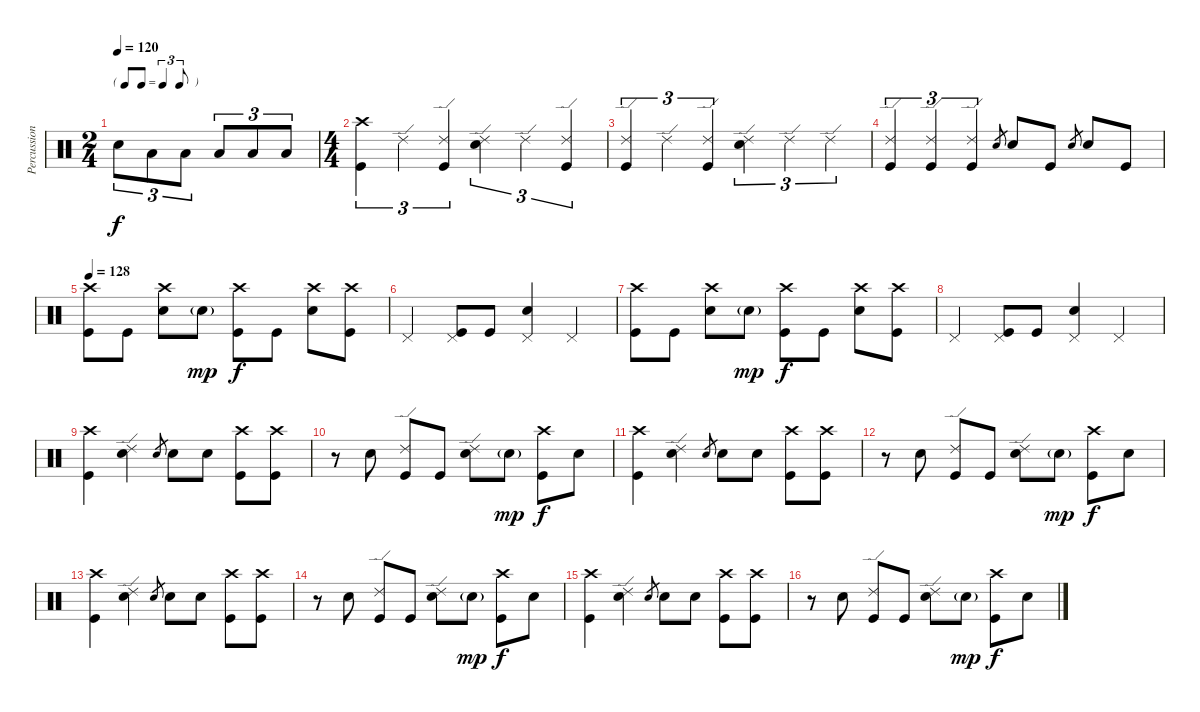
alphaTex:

\track ("Percussion" "Percussion") {instrument percussion}
\staff {score}
\articulation defaults
\ts (2 4)
\tf triplet8th
\tempo 120
\clef neutral
\ks c "Electric Snare (hit)".8{tu (3 2) dy f} "Low Tom (hit)".8{tu (3 2)} "Low Tom (hit)".8{tu (3 2)} "Low Floor Tom (hit)".8{tu (3 2)} "Low Floor Tom (hit)".8{tu (3 2)} "Low Floor Tom (hit)".8{tu (3 2)}
|
\ts (4 4)
("Crash high (hit)" "Kick (hit)").4{tu (3 2)} "Ride (edge) 2".4{tu (3 2)} ("Ride (edge) 2" "Kick (hit)").4{tu (3 2)} ("Ride (edge) 2" "Electric Snare (hit)").4{tu (3 2)} "Ride (edge) 2".4{tu (3 2)} ("Ride (edge) 2" "Kick (hit)").4{tu (3 2)} |
("Ride (edge) 2" "Kick (hit)").4{tu (3 2)} "Ride (edge) 2".4{tu (3 2)} ("Ride (edge) 2" "Kick (hit)").4{tu (3 2)} ("Ride (edge) 2" "Electric Snare (hit)").4{tu (3 2)} "Ride (edge) 2".4{tu (3 2)} "Ride (edge) 2".4{tu (3 2)} |
("Ride (edge) 2" "Kick (hit)").4{tu (3 2)} ("Ride (edge) 2" "Kick (hit)").4{tu (3 2)} ("Ride (edge) 2" "Kick (hit)").4{tu (3 2)} "Electric Snare (hit)".8{gr} "Electric Snare (hit)".8 "Kick (hit)".8 "Electric Snare (hit)".8{gr} "Electric Snare (hit)".8 "Kick (hit)".8 |
\tempo 128
("Crash high (hit)" "Kick (hit)").8 "Kick (hit)".8 ("Crash high (hit)" "Electric Snare (hit)").8 "Electric Snare (hit)"{g}.8{dy mp} ("Crash high (hit)" "Kick (hit)").8{dy f} "Kick (hit)".8 ("Crash high (hit)" "Electric Snare (hit)").8 ("Crash high (hit)" "Kick (hit)").8 |
"Pedal Hi-Hat (hit)".4 ("Pedal Hi-Hat (hit)" "Kick (hit)").8 "Kick (hit)".8 ("Pedal Hi-Hat (hit)" "Electric Snare (hit)").4 "Pedal Hi-Hat (hit)".4 |
("Crash high (hit)" "Kick (hit)").8 "Kick (hit)".8 ("Crash high (hit)" "Electric Snare (hit)").8 "Electric Snare (hit)"{g}.8{dy mp} ("Crash high (hit)" "Kick (hit)").8{dy f} "Kick (hit)".8 ("Crash high (hit)" "Electric Snare (hit)").8 ("Crash high (hit)" "Kick (hit)").8 |
"Pedal Hi-Hat (hit)".4 ("Pedal Hi-Hat (hit)" "Kick (hit)").8 "Kick (hit)".8 ("Pedal Hi-Hat (hit)" "Electric Snare (hit)").4 "Pedal Hi-Hat (hit)".4 |
("Crash high (hit)" "Kick (hit)").4 ("Ride (edge) 2" "Electric Snare (hit)").4 "Electric Snare (hit)".8{gr} "Electric Snare (hit)".8 "Electric Snare (hit)".8 ("Crash high (hit)" "Kick (hit)").8 ("Crash high (hit)" "Kick (hit)").8 |
r.8 "Electric Snare (hit)".8 ("Ride (edge) 2" "Kick (hit)").8 "Kick (hit)".8 ("Ride (edge) 2" "Electric Snare (hit)").8 "Electric Snare (hit)"{g}.8{dy mp} ("Crash high (hit)" "Kick (hit)").8{dy f} "Electric Snare (hit)".8 |
("Crash high (hit)" "Kick (hit)").4 ("Ride (edge) 2" "Electric Snare (hit)").4 "Electric Snare (hit)".8{gr} "Electric Snare (hit)".8 "Electric Snare (hit)".8 ("Crash high (hit)" "Kick (hit)").8 ("Crash high (hit)" "Kick (hit)").8 |
r.8 "Electric Snare (hit)".8 ("Ride (edge) 2" "Kick (hit)").8 "Kick (hit)".8 ("Ride (edge) 2" "Electric Snare (hit)").8 "Electric Snare (hit)"{g}.8{dy mp} ("Crash high (hit)" "Kick (hit)").8{dy f} "Electric Snare (hit)".8 |
("Crash high (hit)" "Kick (hit)").4 ("Ride (edge) 2" "Electric Snare (hit)").4 "Electric Snare (hit)".8{gr} "Electric Snare (hit)".8 "Electric Snare (hit)".8 ("Crash high (hit)" "Kick (hit)").8 ("Crash high (hit)" "Kick (hit)").8 |
r.8 "Electric Snare (hit)".8 ("Ride (edge) 2" "Kick (hit)").8 "Kick (hit)".8 ("Ride (edge) 2" "Electric Snare (hit)").8 "Electric Snare (hit)"{g}.8{dy mp} ("Crash high (hit)" "Kick (hit)").8{dy f} "Electric Snare (hit)".8 |
("Crash high (hit)" "Kick (hit)").4 ("Ride (edge) 2" "Electric Snare (hit)").4 "Electric Snare (hit)".8{gr} "Electric Snare (hit)".8 "Electric Snare (hit)".8 ("Crash high (hit)" "Kick (hit)").8 ("Crash high (hit)" "Kick (hit)").8 |
r.8 "Electric Snare (hit)".8 ("Ride (edge) 2" "Kick (hit)").8 "Kick (hit)".8 ("Ride (edge) 2" "Electric Snare (hit)").8 "Electric Snare (hit)"{g}.8{dy mp} ("Crash high (hit)" "Kick (hit)").8{dy f} "Electric Snare (hit)".8
